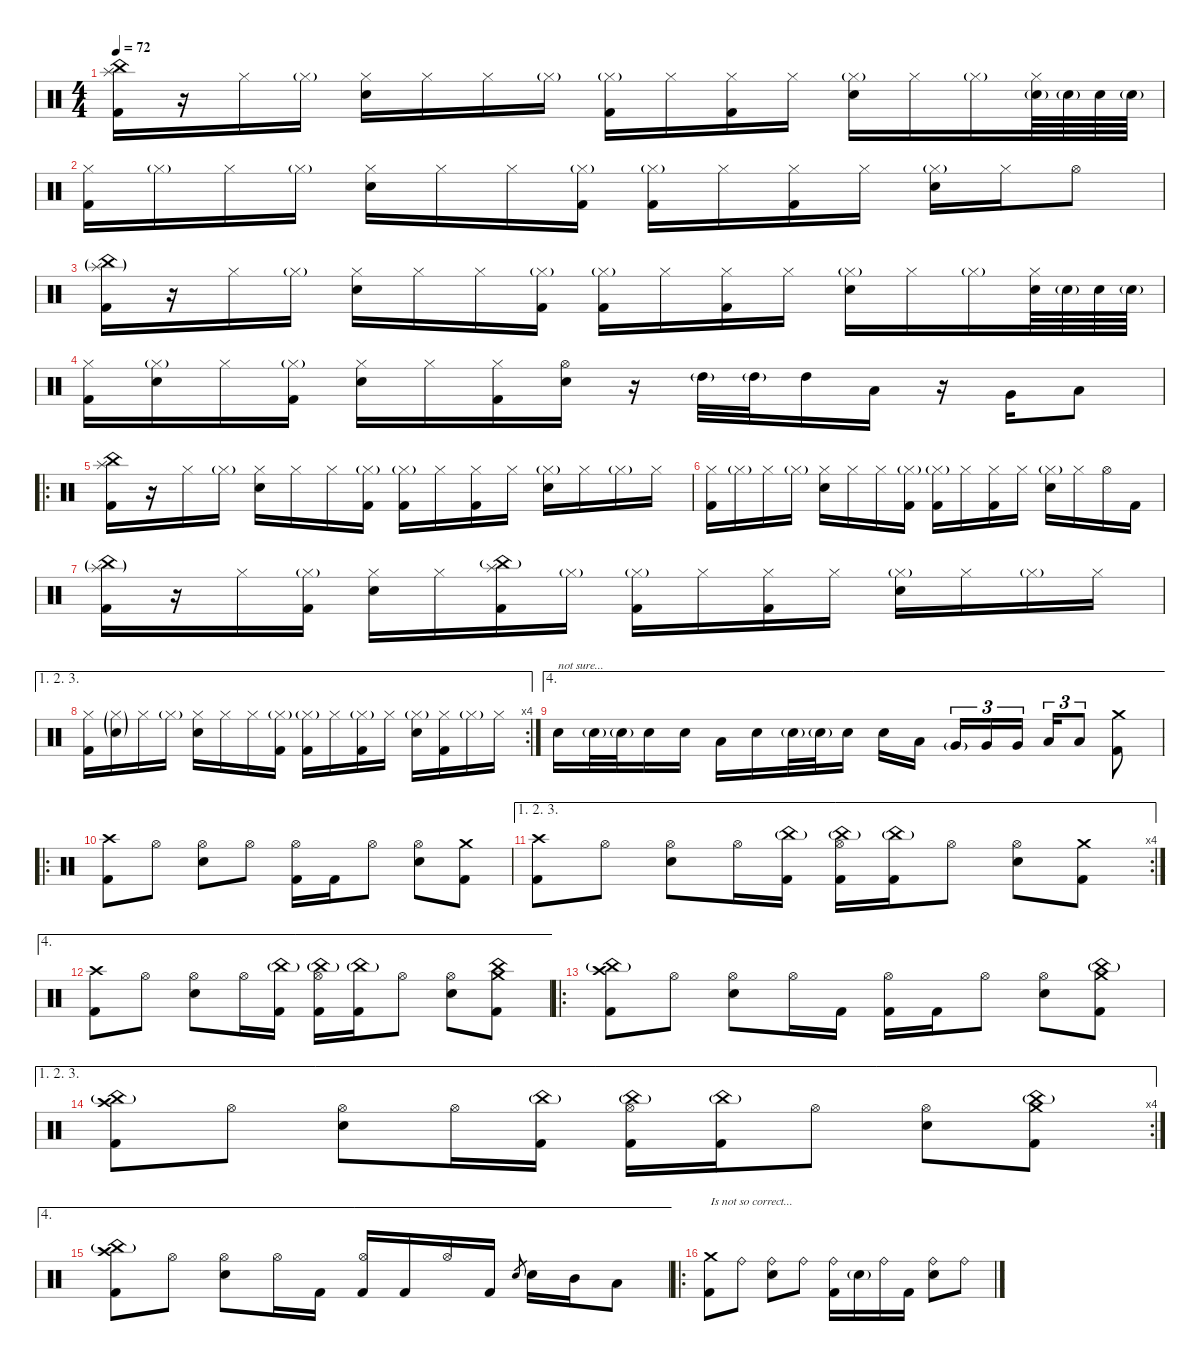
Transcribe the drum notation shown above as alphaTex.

\defaultSystemsLayout 4
\hideDynamics
\bracketExtendMode nobrackets
\singleTrackTrackNamePolicy hidden
\multiTrackTrackNamePolicy hidden
\firstSystemTrackNameMode fullname
\firstSystemTrackNameOrientation horizontal
\otherSystemsTrackNameOrientation horizontal
\track ("Drums" "drm.") {instrument percussion}
\staff {score}
\articulation defaults
\ts (4 4)
\tempo 72
\clef neutral
\ks c
("Splash (hit)" "China (hit)" "Kick (hit) 2").16{dy f beam Down} r.16{beam Down} "Hi-Hat (closed)".16{beam Down} "Hi-Hat (closed)"{g}.16{dy mf beam Down} ("Hi-Hat (closed)" "Snare (hit) 2").16{dy f beam Down} "Hi-Hat (closed)".16{beam Down} "Hi-Hat (closed)".16{beam Down} "Hi-Hat (closed)"{g}.16{dy mf beam Down} ("Hi-Hat (closed)"{g} "Kick (hit) 2").16{dy f beam Down} "Hi-Hat (closed)".16{beam Down} ("Hi-Hat (closed)" "Kick (hit) 2").16{beam Down} "Hi-Hat (closed)".16{beam Down} ("Hi-Hat (closed)"{g} "Snare (hit) 2").16{beam Down} "Hi-Hat (closed)".16{beam Down} "Hi-Hat (closed)"{g}.16{dy mf beam Down} ("Hi-Hat (closed)" "Snare (hit) 2"{g}).64{dy f beam Down} "Snare (hit) 2"{g}.64{dy mf beam Down} "Snare (hit) 2".64{dy f beam Down} "Snare (hit) 2"{g}.64{dy mf beam Down} |
("Hi-Hat (closed)" "Kick (hit) 2").16{dy f beam Down} "Hi-Hat (closed)"{g}.16{dy mf beam Down} "Hi-Hat (closed)".16{dy f beam Down} "Hi-Hat (closed)"{g}.16{dy mf beam Down} ("Hi-Hat (closed)" "Snare (hit) 2").16{dy f beam Down} "Hi-Hat (closed)".16{beam Down} "Hi-Hat (closed)".16{beam Down} ("Hi-Hat (closed)"{g} "Kick (hit) 2").16{beam Down} ("Hi-Hat (closed)"{g} "Kick (hit) 2").16{beam Down} "Hi-Hat (closed)".16{beam Down} ("Hi-Hat (closed)" "Kick (hit) 2").16{beam Down} "Hi-Hat (closed)".16{beam Down} ("Hi-Hat (closed)"{g} "Snare (hit) 2").16{beam Down} "Hi-Hat (closed)".16{beam Down} "Hi-Hat (open)".8{beam Down} |
("Splash (hit)"{g} "China (hit)"{g} "Kick (hit) 2").16{beam Down} r.16{beam Down} "Hi-Hat (closed)".16{beam Down} "Hi-Hat (closed)"{g}.16{dy mf beam Down} ("Hi-Hat (closed)" "Snare (hit) 2").16{dy f beam Down} "Hi-Hat (closed)".16{beam Down} "Hi-Hat (closed)".16{beam Down} ("Hi-Hat (closed)"{g} "Kick (hit) 2").16{beam Down} ("Hi-Hat (closed)"{g} "Kick (hit) 2").16{beam Down} "Hi-Hat (closed)".16{beam Down} ("Hi-Hat (closed)" "Kick (hit) 2").16{beam Down} "Hi-Hat (closed)".16{beam Down} ("Hi-Hat (closed)"{g} "Snare (hit) 2").16{beam Down} "Hi-Hat (closed)".16{beam Down} "Hi-Hat (closed)"{g}.16{dy mf beam Down} ("Hi-Hat (closed)" "Snare (hit) 2").64{dy f beam Down} "Snare (hit) 2"{g}.64{dy mf beam Down} "Snare (hit) 2".64{dy f beam Down} "Snare (hit) 2"{g}.64{dy mf beam Down} |
("Hi-Hat (closed)" "Kick (hit) 2").16{dy f beam Down} ("Hi-Hat (closed)"{g} "Snare (hit) 2").16{beam Down} "Hi-Hat (closed)".16{beam Down} ("Hi-Hat (closed)"{g} "Kick (hit) 2").16{beam Down} ("Hi-Hat (closed)" "Snare (hit) 2").16{beam Down} "Hi-Hat (closed)".16{beam Down} ("Hi-Hat (closed)" "Kick (hit) 2").16{beam Down} ("Hi-Hat (open)" "Snare (hit) 2").16{beam Down} r.16{beam Down} "High Tom (hit)"{g}.32{beam Down} "High Tom (hit)"{g}.32{beam Down} "High Tom (hit)".16{dy ff beam Down} "Low Tom (hit)".16{dy f beam Down} r.16{beam Down} "Very Low Tom (hit)".16{dy ff beam Up} "Low Floor Tom (hit)".8{dy f beam Up} |
\ro
("Splash (hit)" "China (hit)" "Kick (hit) 2").16{beam Down} r.16{beam Down} "Hi-Hat (closed)".16{beam Down} "Hi-Hat (closed)"{g}.16{dy mf beam Down} ("Hi-Hat (closed)" "Snare (hit) 2").16{dy f beam Down} "Hi-Hat (closed)".16{beam Down} "Hi-Hat (closed)".16{beam Down} ("Hi-Hat (closed)"{g} "Kick (hit) 2").16{beam Down} ("Hi-Hat (closed)"{g} "Kick (hit) 2").16{beam Down} "Hi-Hat (closed)".16{beam Down} ("Hi-Hat (closed)" "Kick (hit) 2").16{beam Down} "Hi-Hat (closed)".16{beam Down} ("Hi-Hat (closed)"{g} "Snare (hit) 2").16{beam Down} "Hi-Hat (closed)".16{beam Down} "Hi-Hat (closed)"{g}.16{dy mf beam Down} "Hi-Hat (closed)".16{dy f beam Down} |
("Hi-Hat (closed)" "Kick (hit) 2").16{beam Down} "Hi-Hat (closed)"{g}.16{dy mf beam Down} "Hi-Hat (closed)".16{dy f beam Down} "Hi-Hat (closed)"{g}.16{dy mf beam Down} ("Hi-Hat (closed)" "Snare (hit) 2").16{dy f beam Down} "Hi-Hat (closed)".16{beam Down} "Hi-Hat (closed)".16{beam Down} ("Hi-Hat (closed)"{g} "Kick (hit) 2").16{beam Down} ("Hi-Hat (closed)"{g} "Kick (hit) 2").16{beam Down} "Hi-Hat (closed)".16{beam Down} ("Hi-Hat (closed)" "Kick (hit) 2").16{beam Down} "Hi-Hat (closed)".16{beam Down} ("Hi-Hat (closed)"{g} "Snare (hit) 2").16{beam Down} "Hi-Hat (closed)".16{beam Down} "Hi-Hat (open)".16{beam Down} "Kick (hit) 2".16{beam Down} |
("Splash (hit)"{g} "China (hit)"{g} "Kick (hit) 2").16{beam Down} r.16{beam Down} "Hi-Hat (closed)".16{beam Down} ("Hi-Hat (closed)"{g} "Kick (hit) 2").16{beam Down} ("Hi-Hat (closed)" "Snare (hit) 2").16{beam Down} "Hi-Hat (closed)".16{beam Down} ("China (hit)"{g} "Splash (hit)" "Kick (hit) 2").16{beam Down} "Hi-Hat (closed)"{g}.16{dy mf beam Down} ("Hi-Hat (closed)"{g} "Kick (hit) 2").16{dy f beam Down} "Hi-Hat (closed)".16{beam Down} ("Hi-Hat (closed)" "Kick (hit) 2").16{beam Down} "Hi-Hat (closed)".16{beam Down} ("Hi-Hat (closed)"{g} "Snare (hit) 2").16{beam Down} "Hi-Hat (closed)".16{beam Down} "Hi-Hat (closed)"{g}.16{dy mf beam Down} "Hi-Hat (closed)".16{dy f beam Down} |
\ae (1 2 3)
\rc 4
("Hi-Hat (closed)" "Kick (hit) 2").16{beam Down} ("Hi-Hat (closed)"{g} "Snare (hit) 2"{g}).16{dy mf beam Down} "Hi-Hat (closed)".16{dy f beam Down} "Hi-Hat (closed)"{g}.16{dy mf beam Down} ("Hi-Hat (closed)" "Snare (hit) 2").16{dy f beam Down} "Hi-Hat (closed)".16{beam Down} "Hi-Hat (closed)".16{beam Down} ("Hi-Hat (closed)"{g} "Kick (hit) 2").16{beam Down} ("Hi-Hat (closed)"{g} "Kick (hit) 2").16{beam Down} "Hi-Hat (closed)".16{beam Down} ("Hi-Hat (closed)"{g} "Kick (hit) 2").16{beam Down} "Hi-Hat (closed)".16{beam Down} ("Hi-Hat (closed)"{g} "Snare (hit) 2").16{beam Down} ("Hi-Hat (closed)" "Kick (hit) 2").16{beam Down} "Hi-Hat (closed)"{g}.16{dy mf beam Down} "Hi-Hat (closed)".16{dy f beam Down} |
\ae 4 "Snare (hit) 2".16{txt "not sure..." beam Down} "Snare (hit) 2"{g}.32{dy mf beam Down} "Snare (hit) 2"{g}.32{beam Down} "Snare (hit) 2".16{dy f beam Down} "Snare (hit) 2".16{beam Down} "Low Tom (hit)".16{beam Down} "Snare (hit) 2".16{beam Down} "Snare (hit) 2"{g}.32{dy mf beam Down} "Snare (hit) 2"{g}.32{beam Down} "Snare (hit) 2".16{dy f beam Down} "Snare (hit) 2".16{beam Down} "Low Tom (hit)".16{beam Down} "Very Low Tom (hit)"{g}.16{tu (3 2) dy mf beam Up} "Very Low Tom (hit)".16{tu (3 2) dy f beam Up} "Very Low Tom (hit)".16{tu (3 2) beam Up} "Low Floor Tom (hit)".16{tu (3 2) beam Up} "Low Floor Tom (hit)".8{tu (3 2) beam Up}
("Crash medium (hit)" "Kick (hit) 2").8{beam Down} |
\ro
("Crash high (hit)" "Kick (hit) 2").8{beam Down} "Hi-Hat (open)".8{beam Down} ("Hi-Hat (open)" "Snare (hit) 2").8{beam Down} "Hi-Hat (open)".8{beam Down} ("Hi-Hat (open)" "Kick (hit) 2").16{beam Down} "Kick (hit) 2".16{beam Down} "Hi-Hat (open)".8{beam Down} ("Hi-Hat (open)" "Snare (hit) 2").8{beam Down} ("Crash medium (hit)" "Kick (hit) 2").8{beam Down} |
\ae (1 2 3)
\rc 4
("Crash high (hit)" "Kick (hit) 2").8{beam Down} "Hi-Hat (open)".8{beam Down} ("Hi-Hat (open)" "Snare (hit) 2").8{beam Down} "Hi-Hat (open)".16{beam Down} ("China (hit)"{g} "Kick (hit) 2").16{beam Down} ("China (hit)"{g} "Hi-Hat (open)" "Kick (hit) 2").16{beam Down} ("China (hit)"{g} "Kick (hit) 2").16{beam Down} "Hi-Hat (open)".8{beam Down} ("Hi-Hat (open)" "Snare (hit) 2").8{beam Down} ("Crash medium (hit)" "Kick (hit) 2").8{beam Down} |
\ae 4
("Crash high (hit)" "Kick (hit) 2").8{beam Down} "Hi-Hat (open)".8{beam Down} ("Hi-Hat (open)" "Snare (hit) 2").8{beam Down} "Hi-Hat (open)".16{beam Down} ("China (hit)"{g} "Kick (hit) 2").16{beam Down} ("China (hit)"{g} "Hi-Hat (open)" "Kick (hit) 2").16{beam Down} ("China (hit)"{g} "Kick (hit) 2").16{beam Down} "Hi-Hat (open)".8{beam Down} ("Hi-Hat (open)" "Snare (hit) 2").8{beam Down} ("Crash medium (hit)" "China (hit)" "Kick (hit) 2").8{beam Down} |
\ro
("Crash high (hit)" "China (hit)"{g} "Kick (hit) 2").8{beam Down} "Hi-Hat (open)".8{beam Down} ("Hi-Hat (open)" "Snare (hit) 2").8{beam Down} "Hi-Hat (open)".16{beam Down} "Kick (hit) 2".16{beam Down} ("Hi-Hat (open)" "Kick (hit) 2").16{beam Down} "Kick (hit) 2".16{beam Down} "Hi-Hat (open)".8{beam Down} ("Hi-Hat (open)" "Snare (hit) 2").8{beam Down} ("Crash medium (hit)" "China (hit)"{g} "Kick (hit) 2").8{beam Down} |
\ae (1 2 3)
\rc 4
("Crash high (hit)" "China (hit)"{g} "Kick (hit) 2").8{beam Down} "Hi-Hat (open)".8{beam Down} ("Hi-Hat (open)" "Snare (hit) 2").8{beam Down} "Hi-Hat (open)".16{beam Down} ("China (hit)"{g} "Kick (hit) 2").16{beam Down} ("China (hit)"{g} "Hi-Hat (open)" "Kick (hit) 2").16{beam Down} ("China (hit)"{g} "Kick (hit) 2").16{beam Down} "Hi-Hat (open)".8{beam Down} ("Hi-Hat (open)" "Snare (hit) 2").8{beam Down} ("Crash medium (hit)" "China (hit)"{g} "Kick (hit) 2").8{beam Down} |
\ae 4
("Crash high (hit)" "China (hit)"{g} "Kick (hit) 2").8{beam Down} "Hi-Hat (open)".8{beam Down} ("Hi-Hat (open)" "Snare (hit) 2").8{beam Down} "Hi-Hat (open)".16{beam Down} "Kick (hit) 2".16{beam Down} ("Hi-Hat (open)" "Kick (hit) 2").16{beam Up} "Kick (hit) 2".16{beam Up} "Hi-Hat (open)".16{beam Up} "Kick (hit) 2".16{beam Up} "Electric Snare (hit)".8{gr dy mf beam Up} "Snare (hit) 2".16{dy f beam Down} "Mid Tom (hit)".16{beam Down} "Low Tom (hit)".8{beam Down} |
\ro
("Crash medium (hit)" "Kick (hit) 2").8{txt "Is not so correct..." beam Down} "Ride (bell)".8{beam Down} ("Ride (bell)" "Snare (hit) 2").8{beam Down} "Ride (bell)".8{beam Down} ("Ride (bell)" "Kick (hit) 2").16{beam Down} "Snare (hit) 2"{g}.16{beam Down} "Ride (bell)".16{beam Down} "Kick (hit) 2".16{beam Down} ("Ride (bell)" "Snare (hit) 2").8{beam Down} "Ride (bell)".8{beam Down}
